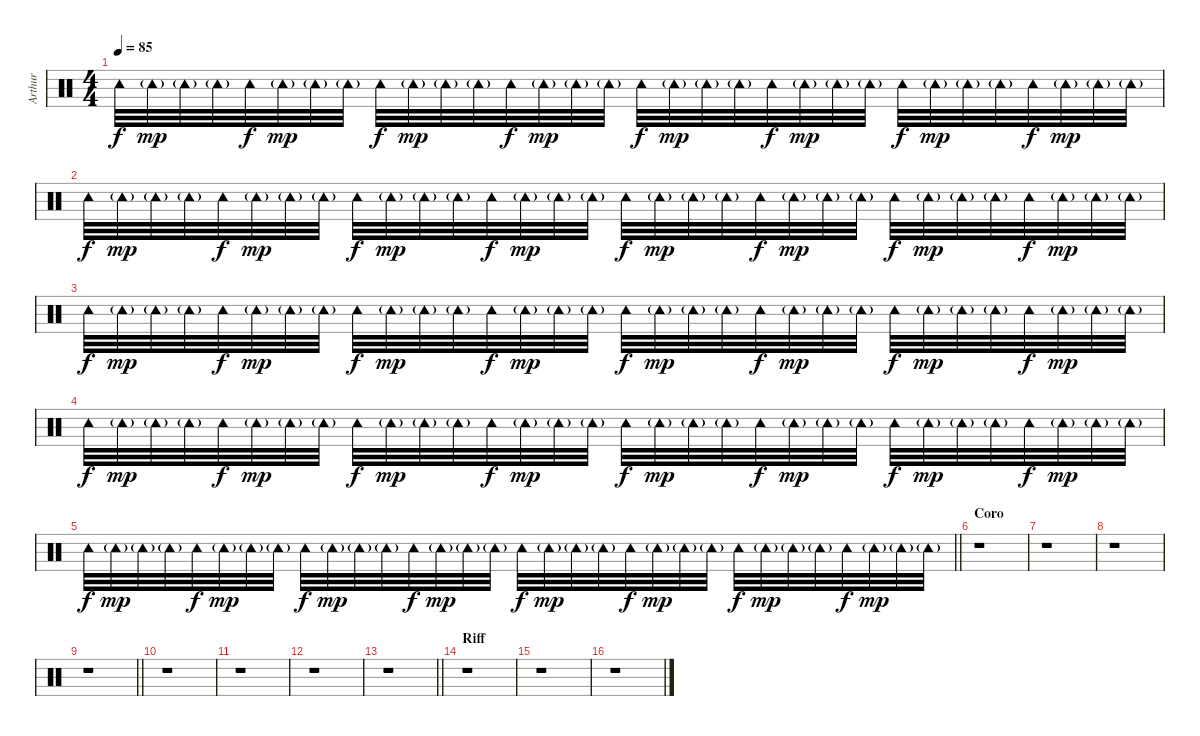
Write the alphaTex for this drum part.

\track ("Arthur" "Arthur") {instrument percussion}
\staff
\articulation defaults
\ts (4 4)
\tempo 85
\clef neutral
\ks c "Tambourine (hit)".32{dy f} "Tambourine (hit)"{g}.32{dy mp} "Tambourine (hit)"{g}.32 "Tambourine (hit)"{g}.32 "Tambourine (hit)".32{dy f} "Tambourine (hit)"{g}.32{dy mp} "Tambourine (hit)"{g}.32 "Tambourine (hit)"{g}.32 "Tambourine (hit)".32{dy f} "Tambourine (hit)"{g}.32{dy mp} "Tambourine (hit)"{g}.32 "Tambourine (hit)"{g}.32 "Tambourine (hit)".32{dy f} "Tambourine (hit)"{g}.32{dy mp} "Tambourine (hit)"{g}.32 "Tambourine (hit)"{g}.32 "Tambourine (hit)".32{dy f} "Tambourine (hit)"{g}.32{dy mp} "Tambourine (hit)"{g}.32 "Tambourine (hit)"{g}.32 "Tambourine (hit)".32{dy f} "Tambourine (hit)"{g}.32{dy mp} "Tambourine (hit)"{g}.32 "Tambourine (hit)"{g}.32 "Tambourine (hit)".32{dy f} "Tambourine (hit)"{g}.32{dy mp} "Tambourine (hit)"{g}.32 "Tambourine (hit)"{g}.32 "Tambourine (hit)".32{dy f} "Tambourine (hit)"{g}.32{dy mp} "Tambourine (hit)"{g}.32 "Tambourine (hit)"{g}.32
|
"Tambourine (hit)".32{dy f} "Tambourine (hit)"{g}.32{dy mp} "Tambourine (hit)"{g}.32 "Tambourine (hit)"{g}.32 "Tambourine (hit)".32{dy f} "Tambourine (hit)"{g}.32{dy mp} "Tambourine (hit)"{g}.32 "Tambourine (hit)"{g}.32 "Tambourine (hit)".32{dy f} "Tambourine (hit)"{g}.32{dy mp} "Tambourine (hit)"{g}.32 "Tambourine (hit)"{g}.32 "Tambourine (hit)".32{dy f} "Tambourine (hit)"{g}.32{dy mp} "Tambourine (hit)"{g}.32 "Tambourine (hit)"{g}.32 "Tambourine (hit)".32{dy f} "Tambourine (hit)"{g}.32{dy mp} "Tambourine (hit)"{g}.32 "Tambourine (hit)"{g}.32 "Tambourine (hit)".32{dy f} "Tambourine (hit)"{g}.32{dy mp} "Tambourine (hit)"{g}.32 "Tambourine (hit)"{g}.32 "Tambourine (hit)".32{dy f} "Tambourine (hit)"{g}.32{dy mp} "Tambourine (hit)"{g}.32 "Tambourine (hit)"{g}.32 "Tambourine (hit)".32{dy f} "Tambourine (hit)"{g}.32{dy mp} "Tambourine (hit)"{g}.32 "Tambourine (hit)"{g}.32 |
"Tambourine (hit)".32{dy f} "Tambourine (hit)"{g}.32{dy mp} "Tambourine (hit)"{g}.32 "Tambourine (hit)"{g}.32 "Tambourine (hit)".32{dy f} "Tambourine (hit)"{g}.32{dy mp} "Tambourine (hit)"{g}.32 "Tambourine (hit)"{g}.32 "Tambourine (hit)".32{dy f} "Tambourine (hit)"{g}.32{dy mp} "Tambourine (hit)"{g}.32 "Tambourine (hit)"{g}.32 "Tambourine (hit)".32{dy f} "Tambourine (hit)"{g}.32{dy mp} "Tambourine (hit)"{g}.32 "Tambourine (hit)"{g}.32 "Tambourine (hit)".32{dy f} "Tambourine (hit)"{g}.32{dy mp} "Tambourine (hit)"{g}.32 "Tambourine (hit)"{g}.32 "Tambourine (hit)".32{dy f} "Tambourine (hit)"{g}.32{dy mp} "Tambourine (hit)"{g}.32 "Tambourine (hit)"{g}.32 "Tambourine (hit)".32{dy f} "Tambourine (hit)"{g}.32{dy mp} "Tambourine (hit)"{g}.32 "Tambourine (hit)"{g}.32 "Tambourine (hit)".32{dy f} "Tambourine (hit)"{g}.32{dy mp} "Tambourine (hit)"{g}.32 "Tambourine (hit)"{g}.32 |
"Tambourine (hit)".32{dy f} "Tambourine (hit)"{g}.32{dy mp} "Tambourine (hit)"{g}.32 "Tambourine (hit)"{g}.32 "Tambourine (hit)".32{dy f} "Tambourine (hit)"{g}.32{dy mp} "Tambourine (hit)"{g}.32 "Tambourine (hit)"{g}.32 "Tambourine (hit)".32{dy f} "Tambourine (hit)"{g}.32{dy mp} "Tambourine (hit)"{g}.32 "Tambourine (hit)"{g}.32 "Tambourine (hit)".32{dy f} "Tambourine (hit)"{g}.32{dy mp} "Tambourine (hit)"{g}.32 "Tambourine (hit)"{g}.32 "Tambourine (hit)".32{dy f} "Tambourine (hit)"{g}.32{dy mp} "Tambourine (hit)"{g}.32 "Tambourine (hit)"{g}.32 "Tambourine (hit)".32{dy f} "Tambourine (hit)"{g}.32{dy mp} "Tambourine (hit)"{g}.32 "Tambourine (hit)"{g}.32 "Tambourine (hit)".32{dy f} "Tambourine (hit)"{g}.32{dy mp} "Tambourine (hit)"{g}.32 "Tambourine (hit)"{g}.32 "Tambourine (hit)".32{dy f} "Tambourine (hit)"{g}.32{dy mp} "Tambourine (hit)"{g}.32 "Tambourine (hit)"{g}.32 |
\barLineRight lightlight "Tambourine (hit)".32{dy f} "Tambourine (hit)"{g}.32{dy mp} "Tambourine (hit)"{g}.32 "Tambourine (hit)"{g}.32 "Tambourine (hit)".32{dy f} "Tambourine (hit)"{g}.32{dy mp} "Tambourine (hit)"{g}.32 "Tambourine (hit)"{g}.32 "Tambourine (hit)".32{dy f} "Tambourine (hit)"{g}.32{dy mp} "Tambourine (hit)"{g}.32 "Tambourine (hit)"{g}.32 "Tambourine (hit)".32{dy f} "Tambourine (hit)"{g}.32{dy mp} "Tambourine (hit)"{g}.32 "Tambourine (hit)"{g}.32 "Tambourine (hit)".32{dy f} "Tambourine (hit)"{g}.32{dy mp} "Tambourine (hit)"{g}.32 "Tambourine (hit)"{g}.32 "Tambourine (hit)".32{dy f} "Tambourine (hit)"{g}.32{dy mp} "Tambourine (hit)"{g}.32 "Tambourine (hit)"{g}.32 "Tambourine (hit)".32{dy f} "Tambourine (hit)"{g}.32{dy mp} "Tambourine (hit)"{g}.32 "Tambourine (hit)"{g}.32 "Tambourine (hit)".32{dy f} "Tambourine (hit)"{g}.32{dy mp} "Tambourine (hit)"{g}.32 "Tambourine (hit)"{g}.32
|
\section ("" "Coro")
r.1 |
r.1 |
r.1 |
\barLineRight lightlight
r.1 |
r.1 |
r.1 |
r.1 |
\barLineRight lightlight
r.1 |
\section ("" "Riff")
r.1 |
r.1 |
r.1
